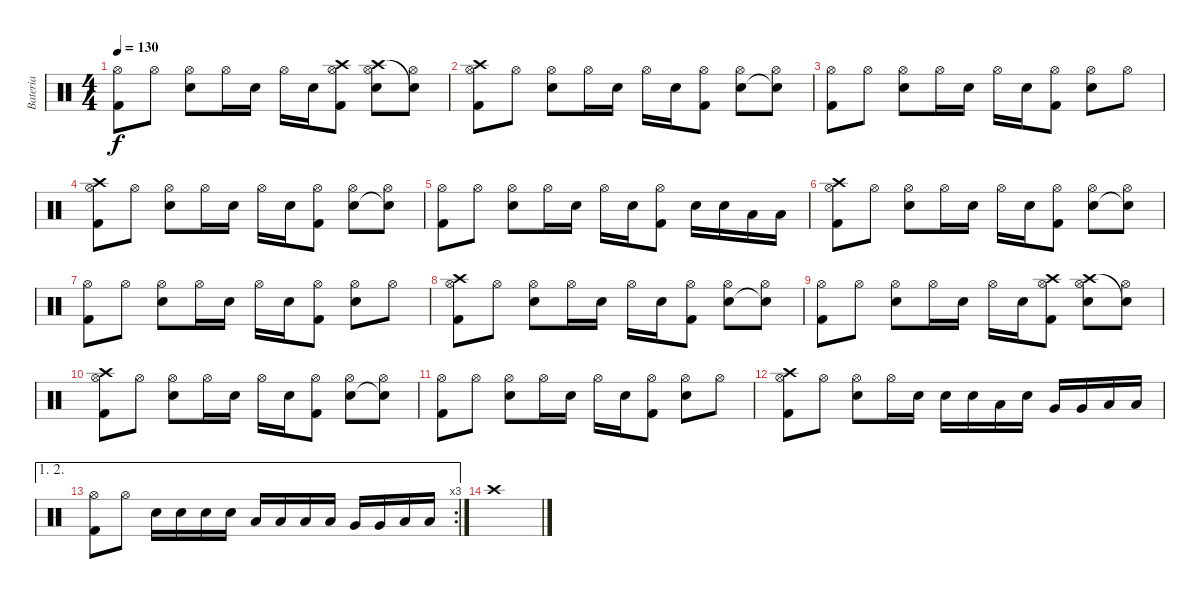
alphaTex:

\track ("Bateria" "Bateria") {instrument percussion}
\staff {score}
\articulation defaults
\ts (4 4)
\tempo 130
\clef neutral
\ks c
("Hi-Hat (open)" "Kick (hit) 2").8{dy f} "Hi-Hat (open)".8 ("Hi-Hat (open)" "Snare (hit) 2").8 "Hi-Hat (open)".16 "Snare (hit) 2".16 "Hi-Hat (open)".16 "Snare (hit) 2".16 ("Hi-Hat (open)" "Crash high (hit)" "Kick (hit) 2").8 ("Hi-Hat (open)" "Crash high (hit)" "Snare (hit) 2").8 ("Hi-Hat (open)" "Snare (hit)"{t}).8 |
("Hi-Hat (open)" "Crash high (hit)" "Kick (hit) 2").8 "Hi-Hat (open)".8 ("Hi-Hat (open)" "Snare (hit) 2").8 "Hi-Hat (open)".16 "Snare (hit) 2".16 "Hi-Hat (open)".16 "Snare (hit) 2".16 ("Hi-Hat (open)" "Kick (hit) 2").8 ("Hi-Hat (open)" "Snare (hit) 2").8 ("Hi-Hat (open)" "Snare (hit)"{t}).8 |
("Hi-Hat (open)" "Kick (hit) 2").8 "Hi-Hat (open)".8 ("Hi-Hat (open)" "Snare (hit) 2").8 "Hi-Hat (open)".16 "Snare (hit) 2".16 "Hi-Hat (open)".16 "Snare (hit) 2".16 ("Hi-Hat (open)" "Kick (hit) 2").8 ("Hi-Hat (open)" "Snare (hit) 2").8 "Hi-Hat (open)".8 |
("Hi-Hat (open)" "Crash high (hit)" "Kick (hit) 2").8 "Hi-Hat (open)".8 ("Hi-Hat (open)" "Snare (hit) 2").8 "Hi-Hat (open)".16 "Snare (hit) 2".16 "Hi-Hat (open)".16 "Snare (hit) 2".16 ("Hi-Hat (open)" "Kick (hit) 2").8 ("Hi-Hat (open)" "Snare (hit) 2").8 ("Hi-Hat (open)" "Snare (hit)"{t}).8 |
("Hi-Hat (open)" "Kick (hit) 2").8 "Hi-Hat (open)".8 ("Hi-Hat (open)" "Snare (hit) 2").8 "Hi-Hat (open)".16 "Snare (hit) 2".16 "Hi-Hat (open)".16 "Snare (hit) 2".16 ("Hi-Hat (open)" "Kick (hit) 2").8 "Snare (hit) 2".16 "Snare (hit) 2".16 "Low Tom (hit)".16 "Low Tom (hit)".16 |
("Hi-Hat (open)" "Crash high (hit)" "Kick (hit) 2").8 "Hi-Hat (open)".8 ("Hi-Hat (open)" "Snare (hit) 2").8 "Hi-Hat (open)".16 "Snare (hit) 2".16 "Hi-Hat (open)".16 "Snare (hit) 2".16 ("Hi-Hat (open)" "Kick (hit) 2").8 ("Hi-Hat (open)" "Snare (hit) 2").8 ("Hi-Hat (open)" "Snare (hit)"{t}).8 |
("Hi-Hat (open)" "Kick (hit) 2").8 "Hi-Hat (open)".8 ("Hi-Hat (open)" "Snare (hit) 2").8 "Hi-Hat (open)".16 "Snare (hit) 2".16 "Hi-Hat (open)".16 "Snare (hit) 2".16 ("Hi-Hat (open)" "Kick (hit) 2").8 ("Hi-Hat (open)" "Snare (hit) 2").8 "Hi-Hat (open)".8 |
("Hi-Hat (open)" "Crash high (hit)" "Kick (hit) 2").8 "Hi-Hat (open)".8 ("Hi-Hat (open)" "Snare (hit) 2").8 "Hi-Hat (open)".16 "Snare (hit) 2".16 "Hi-Hat (open)".16 "Snare (hit) 2".16 ("Hi-Hat (open)" "Kick (hit) 2").8 ("Hi-Hat (open)" "Snare (hit) 2").8 ("Hi-Hat (open)" "Snare (hit)"{t}).8 |
("Hi-Hat (open)" "Kick (hit) 2").8 "Hi-Hat (open)".8 ("Hi-Hat (open)" "Snare (hit) 2").8 "Hi-Hat (open)".16 "Snare (hit) 2".16 "Hi-Hat (open)".16 "Snare (hit) 2".16 ("Hi-Hat (open)" "Crash high (hit)" "Kick (hit) 2").8 ("Hi-Hat (open)" "Crash high (hit)" "Snare (hit) 2").8 ("Hi-Hat (open)" "Snare (hit)"{t}).8 |
("Hi-Hat (open)" "Crash high (hit)" "Kick (hit) 2").8 "Hi-Hat (open)".8 ("Hi-Hat (open)" "Snare (hit) 2").8 "Hi-Hat (open)".16 "Snare (hit) 2".16 "Hi-Hat (open)".16 "Snare (hit) 2".16 ("Hi-Hat (open)" "Kick (hit) 2").8 ("Hi-Hat (open)" "Snare (hit) 2").8 ("Hi-Hat (open)" "Snare (hit)"{t}).8 |
("Hi-Hat (open)" "Kick (hit) 2").8 "Hi-Hat (open)".8 ("Hi-Hat (open)" "Snare (hit) 2").8 "Hi-Hat (open)".16 "Snare (hit) 2".16 "Hi-Hat (open)".16 "Snare (hit) 2".16 ("Hi-Hat (open)" "Kick (hit) 2").8 ("Hi-Hat (open)" "Snare (hit) 2").8 "Hi-Hat (open)".8 |
("Hi-Hat (open)" "Crash high (hit)" "Kick (hit) 2").8 "Hi-Hat (open)".8 ("Hi-Hat (open)" "Snare (hit) 2").8 "Hi-Hat (open)".16 "Snare (hit) 2".16 "Snare (hit) 2".16 "Snare (hit) 2".16 "Low Tom (hit)".16 "Snare (hit) 2".16 "Very Low Tom (hit)".16 "Very Low Tom (hit)".16 "Low Floor Tom (hit)".16 "Low Floor Tom (hit)".16 |
\ae (1 2)
\rc 3
("Hi-Hat (open)" "Kick (hit) 2").8 "Hi-Hat (open)".8 "Snare (hit) 2".16 "Snare (hit) 2".16 "Snare (hit) 2".16 "Snare (hit) 2".16 "Low Tom (hit)".16 "Low Tom (hit)".16 "Low Tom (hit)".16 "Low Tom (hit)".16 "Very Low Tom (hit)".16 "Very Low Tom (hit)".16 "Low Floor Tom (hit)".16 "Low Floor Tom (hit)".16 |
"Crash high (hit)".1
